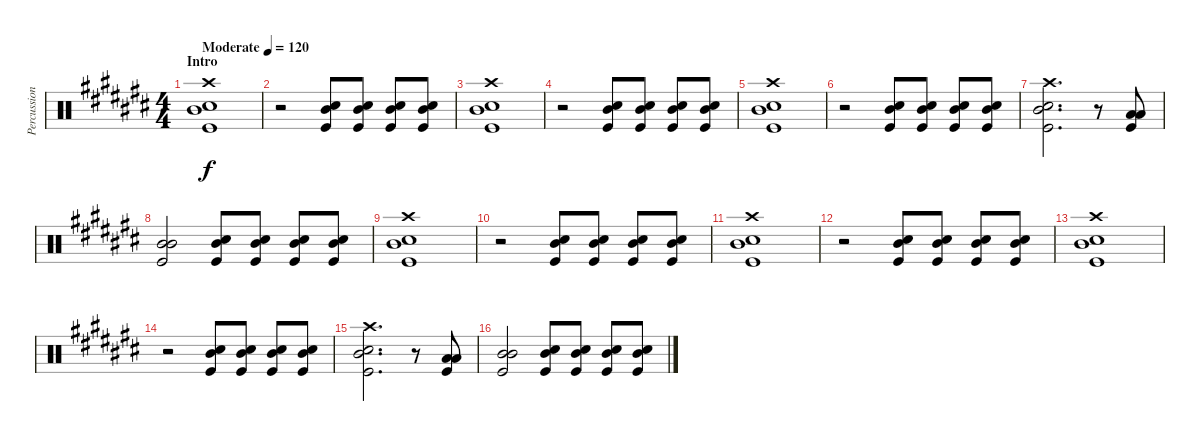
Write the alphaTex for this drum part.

\track ("Percussion" "Percussion") {instrument percussion}
\staff {score}
\articulation defaults
\ts (4 4)
\section ("" "Intro")
\tempo (120 "Moderate")
\clef neutral
\ks a#minor
("Crash high (hit)" "Snare (hit) 2" "Mid Tom (hit)" "Kick (hit)").1{dy f} |
r.2 ("Snare (hit) 2" "Mid Tom (hit)" "Kick (hit)").8 ("Snare (hit) 2" "Mid Tom (hit)" "Kick (hit)").8 ("Snare (hit) 2" "Mid Tom (hit)" "Kick (hit)").8 ("Snare (hit) 2" "Mid Tom (hit)" "Kick (hit)").8 |
("Crash high (hit)" "Snare (hit) 2" "Mid Tom (hit)" "Kick (hit)").1 |
r.2 ("Snare (hit) 2" "Mid Tom (hit)" "Kick (hit)").8 ("Snare (hit) 2" "Mid Tom (hit)" "Kick (hit)").8 ("Snare (hit) 2" "Mid Tom (hit)" "Kick (hit)").8 ("Snare (hit) 2" "Mid Tom (hit)" "Kick (hit)").8 |
("Crash high (hit)" "Snare (hit) 2" "Mid Tom (hit)" "Kick (hit)").1 |
r.2 ("Snare (hit) 2" "Mid Tom (hit)" "Kick (hit)").8 ("Snare (hit) 2" "Mid Tom (hit)" "Kick (hit)").8 ("Snare (hit) 2" "Mid Tom (hit)" "Kick (hit)").8 ("Snare (hit) 2" "Mid Tom (hit)" "Kick (hit)").8 |
("Crash high (hit)" "Snare (hit) 2" "Mid Tom (hit)" "Kick (hit)").2{d} r.8 ("Low Tom (hit)" "Low Tom (hit)" "Kick (hit)").8{volume 12} |
("Mid Tom (hit)" "Mid Tom (hit)" "Kick (hit)").2 ("Snare (hit) 2" "Mid Tom (hit)" "Kick (hit)").8{volume 7} ("Snare (hit) 2" "Mid Tom (hit)" "Kick (hit)").8 ("Snare (hit) 2" "Mid Tom (hit)" "Kick (hit)").8 ("Snare (hit) 2" "Mid Tom (hit)" "Kick (hit)").8 |
("Crash high (hit)" "Snare (hit) 2" "Mid Tom (hit)" "Kick (hit)").1 |
r.2 ("Snare (hit) 2" "Mid Tom (hit)" "Kick (hit)").8 ("Snare (hit) 2" "Mid Tom (hit)" "Kick (hit)").8 ("Snare (hit) 2" "Mid Tom (hit)" "Kick (hit)").8 ("Snare (hit) 2" "Mid Tom (hit)" "Kick (hit)").8 |
("Crash high (hit)" "Snare (hit) 2" "Mid Tom (hit)" "Kick (hit)").1 |
r.2 ("Snare (hit) 2" "Mid Tom (hit)" "Kick (hit)").8 ("Snare (hit) 2" "Mid Tom (hit)" "Kick (hit)").8 ("Snare (hit) 2" "Mid Tom (hit)" "Kick (hit)").8 ("Snare (hit) 2" "Mid Tom (hit)" "Kick (hit)").8 |
("Crash high (hit)" "Snare (hit) 2" "Mid Tom (hit)" "Kick (hit)").1 |
r.2 ("Snare (hit) 2" "Mid Tom (hit)" "Kick (hit)").8 ("Snare (hit) 2" "Mid Tom (hit)" "Kick (hit)").8 ("Snare (hit) 2" "Mid Tom (hit)" "Kick (hit)").8 ("Snare (hit) 2" "Mid Tom (hit)" "Kick (hit)").8 |
("Crash high (hit)" "Snare (hit) 2" "Mid Tom (hit)" "Kick (hit)").2{d} r.8 ("Low Tom (hit)" "Low Tom (hit)" "Kick (hit)").8{volume 12} |
("Mid Tom (hit)" "Mid Tom (hit)" "Kick (hit)").2 ("Snare (hit) 2" "Mid Tom (hit)" "Kick (hit)").8{volume 7} ("Snare (hit) 2" "Mid Tom (hit)" "Kick (hit)").8 ("Snare (hit) 2" "Mid Tom (hit)" "Kick (hit)").8 ("Snare (hit) 2" "Mid Tom (hit)" "Kick (hit)").8
